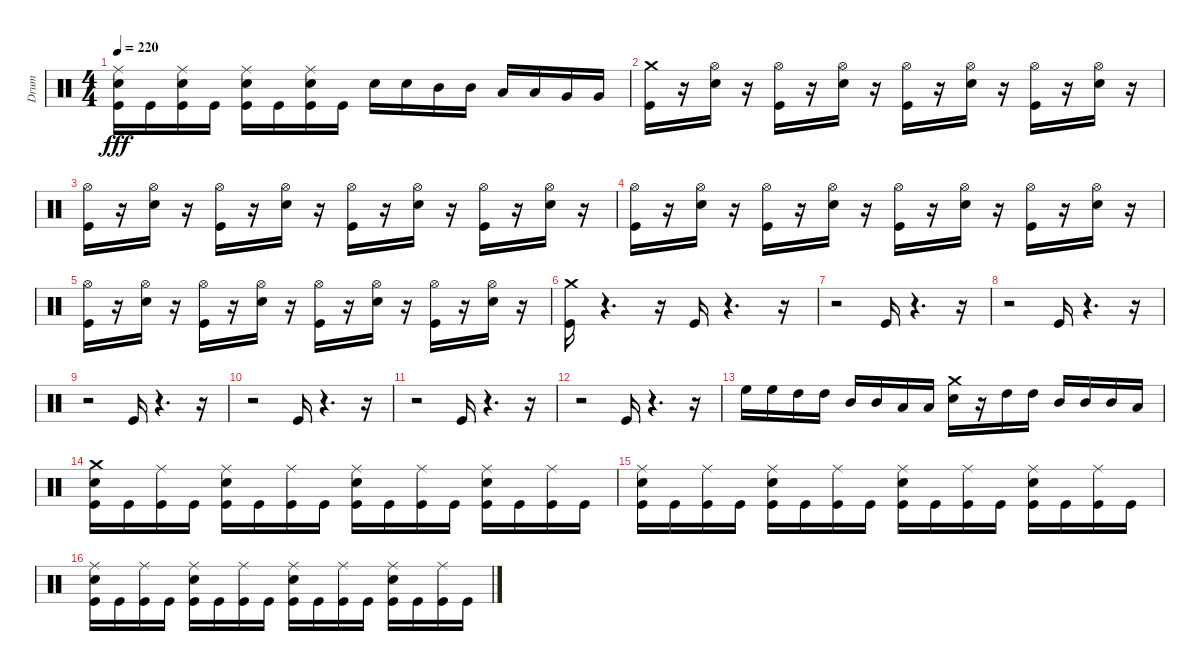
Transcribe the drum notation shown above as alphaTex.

\track ("Drum" "Drum") {instrument percussion}
\staff {score}
\articulation defaults
\ts (4 4)
\tempo 220
\clef neutral
\ks c
("Ride (middle)" "Kick (hit)" "Snare (hit) 2").16{dy fff} "Kick (hit)".16 ("Ride (middle)" "Kick (hit)" "Snare (hit) 2").16 "Kick (hit)".16 ("Kick (hit)" "Ride (middle)" "Snare (hit) 2").16 "Kick (hit)".16 ("Snare (hit) 2" "Kick (hit)" "Ride (middle)").16 "Kick (hit)".16 "Snare (hit) 2".16 "Snare (hit) 2".16 "Mid Tom (hit)".16 "Mid Tom (hit)".16 "Low Tom (hit)".16 "Low Tom (hit)".16 "Very Low Tom (hit)".16 "Very Low Tom (hit)".16 |
("Crash medium (hit)" "Kick (hit)").16 r.16 ("Snare (hit) 2" "Hi-Hat (open)").16 r.16 ("Kick (hit)" "Hi-Hat (open)").16 r.16 ("Snare (hit) 2" "Hi-Hat (open)").16 r.16 ("Kick (hit)" "Hi-Hat (open)").16 r.16 ("Snare (hit) 2" "Hi-Hat (open)").16 r.16 ("Kick (hit)" "Hi-Hat (open)").16 r.16 ("Snare (hit) 2" "Hi-Hat (open)").16 r.16 |
("Hi-Hat (open)" "Kick (hit)").16 r.16 ("Snare (hit) 2" "Hi-Hat (open)").16 r.16 ("Hi-Hat (open)" "Kick (hit)").16 r.16 ("Hi-Hat (open)" "Snare (hit) 2").16 r.16 ("Kick (hit)" "Hi-Hat (open)").16 r.16 ("Hi-Hat (open)" "Snare (hit) 2").16 r.16 ("Hi-Hat (open)" "Kick (hit)").16 r.16 ("Hi-Hat (open)" "Snare (hit) 2").16 r.16 |
("Kick (hit)" "Hi-Hat (open)").16 r.16 ("Snare (hit) 2" "Hi-Hat (open)").16 r.16 ("Kick (hit)" "Hi-Hat (open)").16 r.16 ("Hi-Hat (open)" "Snare (hit) 2").16 r.16 ("Hi-Hat (open)" "Kick (hit)").16 r.16 ("Snare (hit) 2" "Hi-Hat (open)").16 r.16 ("Kick (hit)" "Hi-Hat (open)").16 r.16 ("Snare (hit) 2" "Hi-Hat (open)").16 r.16 |
("Kick (hit)" "Hi-Hat (open)").16 r.16 ("Snare (hit) 2" "Hi-Hat (open)").16 r.16 ("Hi-Hat (open)" "Kick (hit)").16 r.16 ("Hi-Hat (open)" "Snare (hit) 2").16 r.16 ("Kick (hit)" "Hi-Hat (open)").16 r.16 ("Hi-Hat (open)" "Snare (hit) 2").16 r.16 ("Kick (hit)" "Hi-Hat (open)").16 r.16 ("Hi-Hat (open)" "Snare (hit) 2").16 r.16 |
("Crash medium (hit)" "Kick (hit)").16 r.4{d} r.16 "Kick (hit)".16 r.4{d} r.16 |
r.2 "Kick (hit)".16 r.4{d} r.16 |
r.2 "Kick (hit)".16 r.4{d} r.16 |
r.2 "Kick (hit)".16 r.4{d} r.16 |
r.2 "Kick (hit)".16 r.4{d} r.16 |
r.2 "Kick (hit)".16 r.4{d} r.16 |
r.2 "Kick (hit)".16 r.4{d} r.16 |
"High Floor Tom (hit)".16 "High Floor Tom (hit)".16 "High Tom (hit)".16 "High Tom (hit)".16 "Mid Tom (hit)".16 "Mid Tom (hit)".16 "Low Tom (hit)".16 "Low Tom (hit)".16 ("Snare (hit) 2" "Crash medium (hit)").16 r.16 "High Tom (hit)".16 "High Tom (hit)".16 "Mid Tom (hit)".16 "Mid Tom (hit)".16 "Mid Tom (hit)".16 "Low Tom (hit)".16 |
("Snare (hit) 2" "Kick (hit)" "Crash medium (hit)").16 "Kick (hit)".16 ("Kick (hit)" "Ride (middle)").16 "Kick (hit)".16 ("Snare (hit) 2" "Kick (hit)" "Ride (middle)").16 "Kick (hit)".16 ("Ride (middle)" "Kick (hit)").16 "Kick (hit)".16 ("Kick (hit)" "Snare (hit) 2" "Ride (middle)").16 "Kick (hit)".16 ("Ride (middle)" "Kick (hit)").16 "Kick (hit)".16 ("Snare (hit) 2" "Ride (middle)" "Kick (hit)").16 "Kick (hit)".16 ("Kick (hit)" "Ride (middle)").16 "Kick (hit)".16 |
("Ride (middle)" "Kick (hit)" "Snare (hit) 2").16 "Kick (hit)".16 ("Kick (hit)" "Ride (middle)").16 "Kick (hit)".16 ("Kick (hit)" "Ride (middle)" "Snare (hit) 2").16 "Kick (hit)".16 ("Kick (hit)" "Ride (middle)").16 "Kick (hit)".16 ("Snare (hit) 2" "Ride (middle)" "Kick (hit)").16 "Kick (hit)".16 ("Kick (hit)" "Ride (middle)").16 "Kick (hit)".16 ("Snare (hit) 2" "Kick (hit)" "Ride (middle)").16 "Kick (hit)".16 ("Kick (hit)" "Ride (middle)").16 "Kick (hit)".16 |
("Ride (middle)" "Kick (hit)" "Snare (hit) 2").16 "Kick (hit)".16 ("Ride (middle)" "Kick (hit)").16 "Kick (hit)".16 ("Kick (hit)" "Snare (hit) 2" "Ride (middle)").16 "Kick (hit)".16 ("Kick (hit)" "Ride (middle)").16 "Kick (hit)".16 ("Ride (middle)" "Kick (hit)" "Snare (hit) 2").16 "Kick (hit)".16 ("Kick (hit)" "Ride (middle)").16 "Kick (hit)".16 ("Kick (hit)" "Snare (hit) 2" "Ride (middle)").16 "Kick (hit)".16 ("Kick (hit)" "Ride (middle)").16 "Kick (hit)".16
